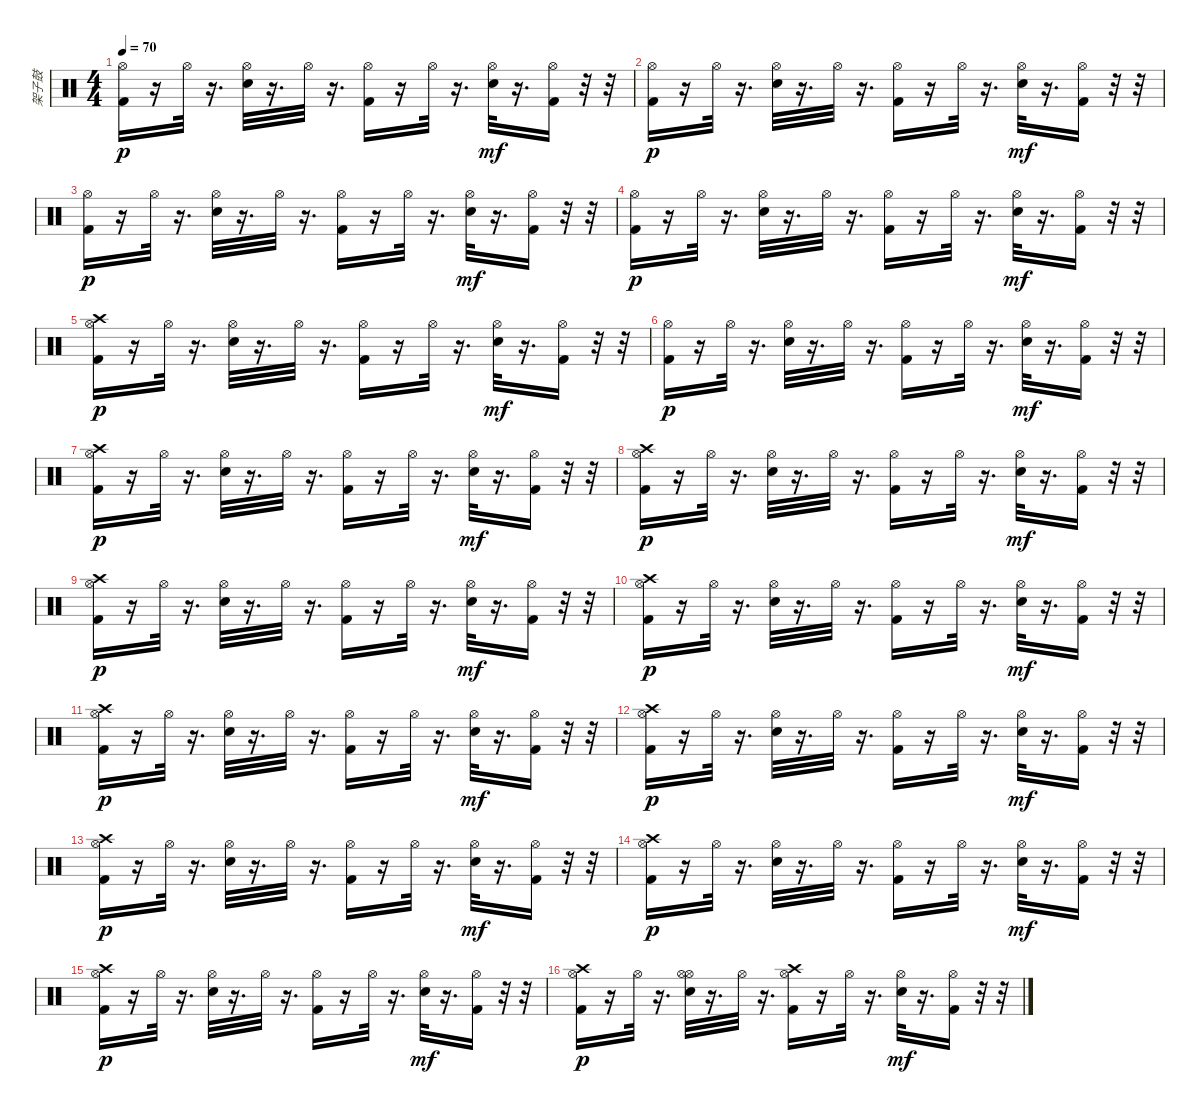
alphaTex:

\track ("架子鼓" "架子鼓") {instrument percussion}
\staff {score}
\articulation defaults
\ts (4 4)
\tempo 70
\clef neutral
\ks c
("Hi-Hat (open)" "Kick (hit) 2").16{dy p} r.16 "Hi-Hat (open)".32 r.16{d} ("Hi-Hat (open)" "Snare (hit) 2").32 r.16{d} "Hi-Hat (open)".32 r.16{d} ("Hi-Hat (open)" "Kick (hit) 2").16 r.16 "Hi-Hat (open)".32 r.16{d} ("Hi-Hat (open)" "Snare (hit) 2").32{dy mf} r.16{d} ("Hi-Hat (open)" "Kick (hit) 2").16 r.32 r.32 |
("Hi-Hat (open)" "Kick (hit) 2").16{dy p} r.16 "Hi-Hat (open)".32 r.16{d} ("Hi-Hat (open)" "Snare (hit) 2").32 r.16{d} "Hi-Hat (open)".32 r.16{d} ("Hi-Hat (open)" "Kick (hit) 2").16 r.16 "Hi-Hat (open)".32 r.16{d} ("Hi-Hat (open)" "Snare (hit) 2").32{dy mf} r.16{d} ("Hi-Hat (open)" "Kick (hit) 2").16 r.32 r.32 |
("Hi-Hat (open)" "Kick (hit) 2").16{dy p} r.16 "Hi-Hat (open)".32 r.16{d} ("Hi-Hat (open)" "Snare (hit) 2").32 r.16{d} "Hi-Hat (open)".32 r.16{d} ("Hi-Hat (open)" "Kick (hit) 2").16 r.16 "Hi-Hat (open)".32 r.16{d} ("Hi-Hat (open)" "Snare (hit) 2").32{dy mf} r.16{d} ("Hi-Hat (open)" "Kick (hit) 2").16 r.32 r.32 |
("Hi-Hat (open)" "Kick (hit) 2").16{dy p} r.16 "Hi-Hat (open)".32 r.16{d} ("Hi-Hat (open)" "Snare (hit) 2").32 r.16{d} "Hi-Hat (open)".32 r.16{d} ("Hi-Hat (open)" "Kick (hit) 2").16 r.16 "Hi-Hat (open)".32 r.16{d} ("Hi-Hat (open)" "Snare (hit) 2").32{dy mf} r.16{d} ("Hi-Hat (open)" "Kick (hit) 2").16 r.32 r.32 |
("Hi-Hat (open)" "Kick (hit) 2" "Crash high (hit)").16{dy p} r.16 "Hi-Hat (open)".32 r.16{d} ("Hi-Hat (open)" "Snare (hit) 2").32 r.16{d} "Hi-Hat (open)".32 r.16{d} ("Hi-Hat (open)" "Kick (hit) 2").16 r.16 "Hi-Hat (open)".32 r.16{d} ("Hi-Hat (open)" "Snare (hit) 2").32{dy mf} r.16{d} ("Hi-Hat (open)" "Kick (hit) 2").16 r.32 r.32 |
("Hi-Hat (open)" "Kick (hit) 2").16{dy p} r.16 "Hi-Hat (open)".32 r.16{d} ("Hi-Hat (open)" "Snare (hit) 2").32 r.16{d} "Hi-Hat (open)".32 r.16{d} ("Hi-Hat (open)" "Kick (hit) 2").16 r.16 "Hi-Hat (open)".32 r.16{d} ("Hi-Hat (open)" "Snare (hit) 2").32{dy mf} r.16{d} ("Hi-Hat (open)" "Kick (hit) 2").16 r.32 r.32 |
("Hi-Hat (open)" "Kick (hit) 2" "Crash high (hit)").16{dy p} r.16 "Hi-Hat (open)".32 r.16{d} ("Hi-Hat (open)" "Snare (hit) 2").32 r.16{d} "Hi-Hat (open)".32 r.16{d} ("Hi-Hat (open)" "Kick (hit) 2").16 r.16 "Hi-Hat (open)".32 r.16{d} ("Hi-Hat (open)" "Snare (hit) 2").32{dy mf} r.16{d} ("Hi-Hat (open)" "Kick (hit) 2").16 r.32 r.32 |
("Hi-Hat (open)" "Kick (hit) 2" "Crash high (hit)").16{dy p} r.16 "Hi-Hat (open)".32 r.16{d} ("Hi-Hat (open)" "Snare (hit) 2").32 r.16{d} "Hi-Hat (open)".32 r.16{d} ("Hi-Hat (open)" "Kick (hit) 2").16 r.16 "Hi-Hat (open)".32 r.16{d} ("Hi-Hat (open)" "Snare (hit) 2").32{dy mf} r.16{d} ("Hi-Hat (open)" "Kick (hit) 2").16 r.32 r.32 |
("Hi-Hat (open)" "Kick (hit) 2" "Crash high (hit)").16{dy p} r.16 "Hi-Hat (open)".32 r.16{d} ("Hi-Hat (open)" "Snare (hit) 2").32 r.16{d} "Hi-Hat (open)".32 r.16{d} ("Hi-Hat (open)" "Kick (hit) 2").16 r.16 "Hi-Hat (open)".32 r.16{d} ("Hi-Hat (open)" "Snare (hit) 2").32{dy mf} r.16{d} ("Hi-Hat (open)" "Kick (hit) 2").16 r.32 r.32 |
("Hi-Hat (open)" "Kick (hit) 2" "Crash high (hit)").16{dy p} r.16 "Hi-Hat (open)".32 r.16{d} ("Hi-Hat (open)" "Snare (hit) 2").32 r.16{d} "Hi-Hat (open)".32 r.16{d} ("Hi-Hat (open)" "Kick (hit) 2").16 r.16 "Hi-Hat (open)".32 r.16{d} ("Hi-Hat (open)" "Snare (hit) 2").32{dy mf} r.16{d} ("Hi-Hat (open)" "Kick (hit) 2").16 r.32 r.32 |
("Hi-Hat (open)" "Kick (hit) 2" "Crash high (hit)").16{dy p} r.16 "Hi-Hat (open)".32 r.16{d} ("Hi-Hat (open)" "Snare (hit) 2").32 r.16{d} "Hi-Hat (open)".32 r.16{d} ("Hi-Hat (open)" "Kick (hit) 2").16 r.16 "Hi-Hat (open)".32 r.16{d} ("Hi-Hat (open)" "Snare (hit) 2").32{dy mf} r.16{d} ("Hi-Hat (open)" "Kick (hit) 2").16 r.32 r.32 |
("Hi-Hat (open)" "Kick (hit) 2" "Crash high (hit)").16{dy p} r.16 "Hi-Hat (open)".32 r.16{d} ("Hi-Hat (open)" "Snare (hit) 2").32 r.16{d} "Hi-Hat (open)".32 r.16{d} ("Hi-Hat (open)" "Kick (hit) 2").16 r.16 "Hi-Hat (open)".32 r.16{d} ("Hi-Hat (open)" "Snare (hit) 2").32{dy mf} r.16{d} ("Hi-Hat (open)" "Kick (hit) 2").16 r.32 r.32 |
("Hi-Hat (open)" "Kick (hit) 2" "Crash high (hit)").16{dy p} r.16 "Hi-Hat (open)".32 r.16{d} ("Hi-Hat (open)" "Snare (hit) 2").32 r.16{d} "Hi-Hat (open)".32 r.16{d} ("Hi-Hat (open)" "Kick (hit) 2").16 r.16 "Hi-Hat (open)".32 r.16{d} ("Hi-Hat (open)" "Snare (hit) 2").32{dy mf} r.16{d} ("Hi-Hat (open)" "Kick (hit) 2").16 r.32 r.32 |
("Hi-Hat (open)" "Kick (hit) 2" "Crash high (hit)").16{dy p} r.16 "Hi-Hat (open)".32 r.16{d} ("Hi-Hat (open)" "Snare (hit) 2").32 r.16{d} "Hi-Hat (open)".32 r.16{d} ("Hi-Hat (open)" "Kick (hit) 2").16 r.16 "Hi-Hat (open)".32 r.16{d} ("Hi-Hat (open)" "Snare (hit) 2").32{dy mf} r.16{d} ("Hi-Hat (open)" "Kick (hit) 2").16 r.32 r.32 |
("Hi-Hat (open)" "Kick (hit) 2" "Crash high (hit)").16{dy p} r.16 "Hi-Hat (open)".32 r.16{d} ("Hi-Hat (open)" "Snare (hit) 2").32 r.16{d} "Hi-Hat (open)".32 r.16{d} ("Hi-Hat (open)" "Kick (hit) 2").16 r.16 "Hi-Hat (open)".32 r.16{d} ("Hi-Hat (open)" "Snare (hit) 2").32{dy mf} r.16{d} ("Hi-Hat (open)" "Kick (hit) 2").16 r.32 r.32 |
("Hi-Hat (open)" "Kick (hit) 2" "Crash high (hit)").16{dy p} r.16 "Hi-Hat (open)".32 r.16{d} ("Hi-Hat (open)" "Snare (hit) 2" "Hi-Hat (open)").32 r.16{d} "Hi-Hat (open)".32 r.16{d} ("Hi-Hat (open)" "Kick (hit) 2" "Crash high (hit)").16 r.16 "Hi-Hat (open)".32 r.16{d} ("Hi-Hat (open)" "Snare (hit) 2").32{dy mf} r.16{d} ("Hi-Hat (open)" "Kick (hit) 2").16 r.32 r.32
